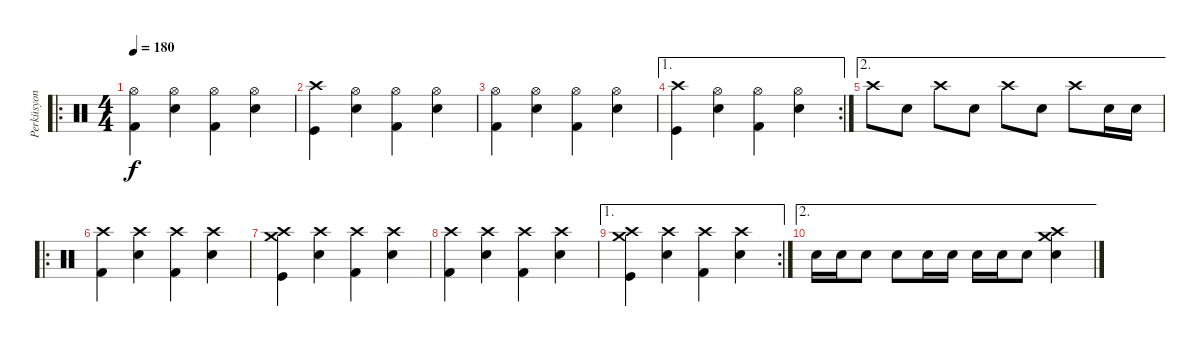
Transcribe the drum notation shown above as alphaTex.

\track ("Perküsyon" "Perküsyon") {instrument percussion}
\staff {score}
\articulation defaults
\ro
\ts (4 4)
\tempo 180
\clef neutral
\ks c
("Hi-Hat (open)" "Kick (hit) 2").4{dy f} ("Hi-Hat (open)" "Electric Snare (hit)").4 ("Hi-Hat (open)" "Kick (hit) 2").4 ("Hi-Hat (open)" "Electric Snare (hit)").4 |
("Crash high (hit)" "Kick (hit)").4 ("Hi-Hat (open)" "Electric Snare (hit)").4 ("Hi-Hat (open)" "Kick (hit) 2").4 ("Hi-Hat (open)" "Electric Snare (hit)").4 |
("Hi-Hat (open)" "Kick (hit) 2").4 ("Hi-Hat (open)" "Electric Snare (hit)").4 ("Hi-Hat (open)" "Kick (hit) 2").4 ("Hi-Hat (open)" "Electric Snare (hit)").4 |
\ae 1
\rc 2
("Crash high (hit)" "Kick (hit)").4 ("Hi-Hat (open)" "Electric Snare (hit)").4 ("Hi-Hat (open)" "Kick (hit) 2").4 ("Hi-Hat (open)" "Electric Snare (hit)").4 |
\ae 2 "Crash high (hit)".8 "Snare (hit) 2".8 "Crash high (hit)".8 "Snare (hit) 2".8 "Crash high (hit)".8 "Snare (hit) 2".8 "Crash high (hit)".8 "Snare (hit) 2".16 "Snare (hit) 2".16
|
\ro
("Crash high (hit)" "Kick (hit) 2").4 ("Crash high (hit)" "Electric Snare (hit)").4 ("Crash high (hit)" "Kick (hit) 2").4 ("Crash high (hit)" "Electric Snare (hit)").4 |
("Crash high (hit)" "Kick (hit)" "Crash medium (hit)").4 ("Crash high (hit)" "Electric Snare (hit)").4 ("Crash high (hit)" "Kick (hit) 2").4 ("Crash high (hit)" "Electric Snare (hit)").4 |
("Crash high (hit)" "Kick (hit) 2").4 ("Crash high (hit)" "Electric Snare (hit)").4 ("Crash high (hit)" "Kick (hit) 2").4 ("Crash high (hit)" "Electric Snare (hit)").4 |
\ae 1
\rc 2
("Crash high (hit)" "Kick (hit)" "Crash medium (hit)").4 ("Crash high (hit)" "Electric Snare (hit)").4 ("Crash high (hit)" "Kick (hit) 2").4 ("Crash high (hit)" "Electric Snare (hit)").4 |
\ae 2 "Electric Snare (hit)".16 "Electric Snare (hit)".16 "Electric Snare (hit)".8 "Electric Snare (hit)".8 "Electric Snare (hit)".16 "Electric Snare (hit)".16 "Electric Snare (hit)".16 "Electric Snare (hit)".16 "Electric Snare (hit)".8
("Crash high (hit)" "Crash medium (hit)" "Electric Snare (hit)").4
